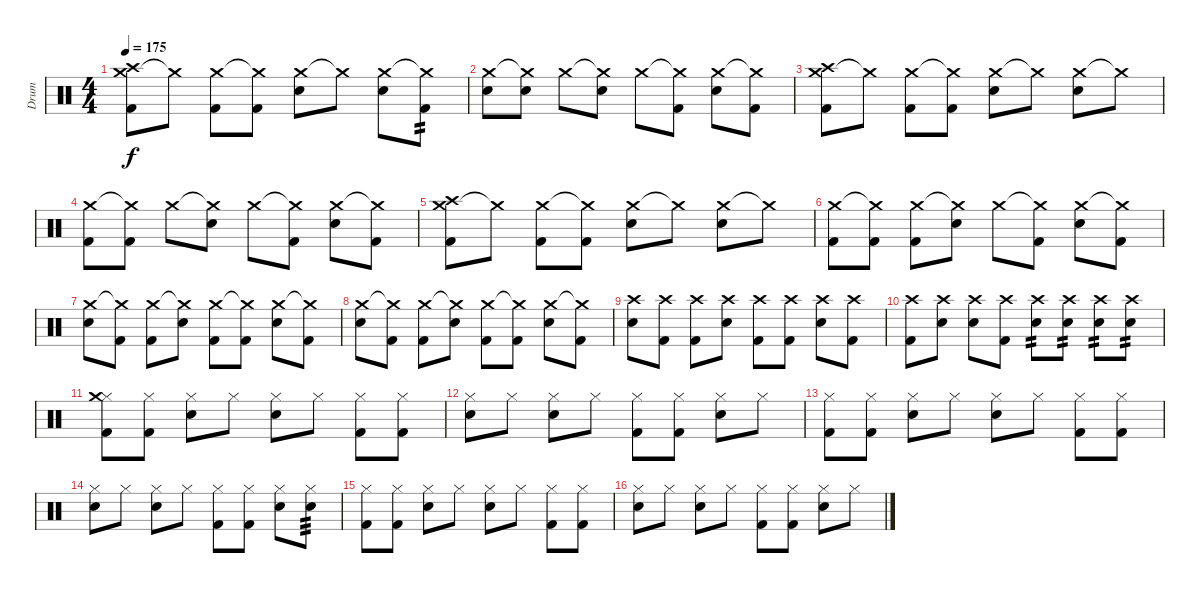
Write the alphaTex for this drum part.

\track ("Drum" "Drum") {instrument percussion}
\staff {score}
\articulation defaults
\ts (4 4)
\tempo 175
\clef neutral
\ks c
("Crash medium (hit)" "Crash high (hit)" "Kick (hit) 2").8{dy f} "Crash medium (hit)"{t}.8 ("Crash medium (hit)" "Kick (hit) 2").8 ("Crash medium (hit)"{t} "Kick (hit) 2").8 ("Crash medium (hit)" "Snare (hit) 2").8 "Crash medium (hit)"{t}.8 ("Crash medium (hit)" "Snare (hit) 2").8 ("Crash medium (hit)"{t} "Kick (hit) 2").8{tp 2} |
("Crash medium (hit)" "Snare (hit) 2").8 ("Crash medium (hit)"{t} "Snare (hit) 2").8 "Crash medium (hit)".8 ("Crash medium (hit)"{t} "Snare (hit) 2").8 "Crash medium (hit)".8 ("Crash medium (hit)"{t} "Kick (hit) 2").8 ("Crash medium (hit)" "Snare (hit) 2").8 ("Crash medium (hit)"{t} "Kick (hit) 2").8 |
("Crash medium (hit)" "Crash high (hit)" "Kick (hit) 2").8 "Crash medium (hit)"{t}.8 ("Crash medium (hit)" "Kick (hit) 2").8 ("Crash medium (hit)"{t} "Kick (hit) 2").8 ("Crash medium (hit)" "Snare (hit) 2").8 "Crash medium (hit)"{t}.8 ("Crash medium (hit)" "Snare (hit) 2").8 "Crash medium (hit)"{t}.8 |
("Crash medium (hit)" "Kick (hit) 2").8 ("Crash medium (hit)"{t} "Kick (hit) 2").8 "Crash medium (hit)".8 ("Crash medium (hit)"{t} "Snare (hit) 2").8 "Crash medium (hit)".8 ("Crash medium (hit)"{t} "Kick (hit) 2").8 ("Crash medium (hit)" "Snare (hit) 2").8 ("Crash medium (hit)"{t} "Kick (hit) 2").8 |
("Crash medium (hit)" "Crash high (hit)" "Kick (hit) 2").8 "Crash medium (hit)"{t}.8 ("Crash medium (hit)" "Kick (hit) 2").8 ("Crash medium (hit)"{t} "Kick (hit) 2").8 ("Crash medium (hit)" "Snare (hit) 2").8 "Crash medium (hit)"{t}.8 ("Crash medium (hit)" "Snare (hit) 2").8 "Crash medium (hit)"{t}.8 |
("Crash medium (hit)" "Kick (hit) 2").8 ("Crash medium (hit)"{t} "Kick (hit) 2").8 ("Crash medium (hit)" "Kick (hit) 2").8 ("Crash medium (hit)"{t} "Snare (hit) 2").8 "Crash medium (hit)".8 ("Crash medium (hit)"{t} "Kick (hit) 2").8 ("Crash medium (hit)" "Snare (hit) 2").8 ("Crash medium (hit)"{t} "Kick (hit) 2").8 |
("Crash medium (hit)" "Snare (hit) 2").8 ("Crash medium (hit)"{t} "Kick (hit) 2").8 ("Crash medium (hit)" "Kick (hit) 2").8 ("Crash medium (hit)"{t} "Snare (hit) 2").8 ("Crash medium (hit)" "Kick (hit) 2").8 ("Crash medium (hit)"{t} "Kick (hit) 2").8 ("Crash medium (hit)" "Snare (hit) 2").8 ("Crash medium (hit)"{t} "Kick (hit) 2").8 |
("Crash medium (hit)" "Snare (hit) 2").8 ("Crash medium (hit)"{t} "Kick (hit) 2").8 ("Crash medium (hit)" "Kick (hit) 2").8 ("Crash medium (hit)"{t} "Snare (hit) 2").8 ("Crash medium (hit)" "Kick (hit) 2").8 ("Crash medium (hit)"{t} "Kick (hit) 2").8 ("Crash medium (hit)" "Snare (hit) 2").8 ("Crash medium (hit)"{t} "Kick (hit) 2").8 |
("Crash high (hit)" "Snare (hit) 2").8 ("Crash high (hit)" "Kick (hit) 2").8 ("Crash high (hit)" "Kick (hit) 2").8 ("Crash high (hit)" "Snare (hit) 2").8 ("Crash high (hit)" "Kick (hit) 2").8 ("Crash high (hit)" "Kick (hit) 2").8 ("Crash high (hit)" "Snare (hit) 2").8 ("Crash high (hit)" "Kick (hit) 2").8 |
("Crash high (hit)" "Kick (hit) 2").8 ("Crash high (hit)" "Snare (hit) 2").8 ("Crash high (hit)" "Snare (hit) 2").8 ("Crash high (hit)" "Kick (hit) 2").8 ("Crash high (hit)" "Snare (hit) 2").8{tp 2} ("Crash high (hit)" "Snare (hit) 2").8{tp 2} ("Crash high (hit)" "Snare (hit) 2").8{tp 2} ("Crash high (hit)" "Snare (hit) 2").8{tp 2} |
("Hi-Hat (closed)" "Crash medium (hit)" "Kick (hit) 2").8 ("Hi-Hat (closed)" "Kick (hit) 2").8 ("Hi-Hat (closed)" "Snare (hit) 2").8 "Hi-Hat (closed)".8 ("Hi-Hat (closed)" "Snare (hit) 2").8 "Hi-Hat (closed)".8 ("Hi-Hat (closed)" "Kick (hit) 2").8 ("Hi-Hat (closed)" "Kick (hit) 2").8 |
("Hi-Hat (closed)" "Snare (hit) 2").8 "Hi-Hat (closed)".8 ("Hi-Hat (closed)" "Snare (hit) 2").8 "Hi-Hat (closed)".8 ("Hi-Hat (closed)" "Kick (hit) 2").8 ("Hi-Hat (closed)" "Kick (hit) 2").8 ("Hi-Hat (closed)" "Snare (hit) 2").8 "Hi-Hat (closed)".8 |
("Hi-Hat (closed)" "Kick (hit) 2").8 ("Hi-Hat (closed)" "Kick (hit) 2").8 ("Hi-Hat (closed)" "Snare (hit) 2").8 "Hi-Hat (closed)".8 ("Hi-Hat (closed)" "Snare (hit) 2").8 "Hi-Hat (closed)".8 ("Hi-Hat (closed)" "Kick (hit) 2").8 ("Hi-Hat (closed)" "Kick (hit) 2").8 |
("Hi-Hat (closed)" "Snare (hit) 2").8 "Hi-Hat (closed)".8 ("Hi-Hat (closed)" "Snare (hit) 2").8 "Hi-Hat (closed)".8 ("Hi-Hat (closed)" "Kick (hit) 2").8 ("Hi-Hat (closed)" "Kick (hit) 2").8 ("Hi-Hat (closed)" "Snare (hit) 2").8 ("Hi-Hat (closed)" "Snare (hit) 2").8{tp 3} |
("Hi-Hat (closed)" "Kick (hit) 2").8 ("Hi-Hat (closed)" "Kick (hit) 2").8 ("Hi-Hat (closed)" "Snare (hit) 2").8 "Hi-Hat (closed)".8 ("Hi-Hat (closed)" "Snare (hit) 2").8 "Hi-Hat (closed)".8 ("Hi-Hat (closed)" "Kick (hit) 2").8 ("Hi-Hat (closed)" "Kick (hit) 2").8 |
("Hi-Hat (closed)" "Snare (hit) 2").8 "Hi-Hat (closed)".8 ("Hi-Hat (closed)" "Snare (hit) 2").8 "Hi-Hat (closed)".8 ("Hi-Hat (closed)" "Kick (hit) 2").8 ("Hi-Hat (closed)" "Kick (hit) 2").8 ("Hi-Hat (closed)" "Snare (hit) 2").8 "Hi-Hat (closed)".8
